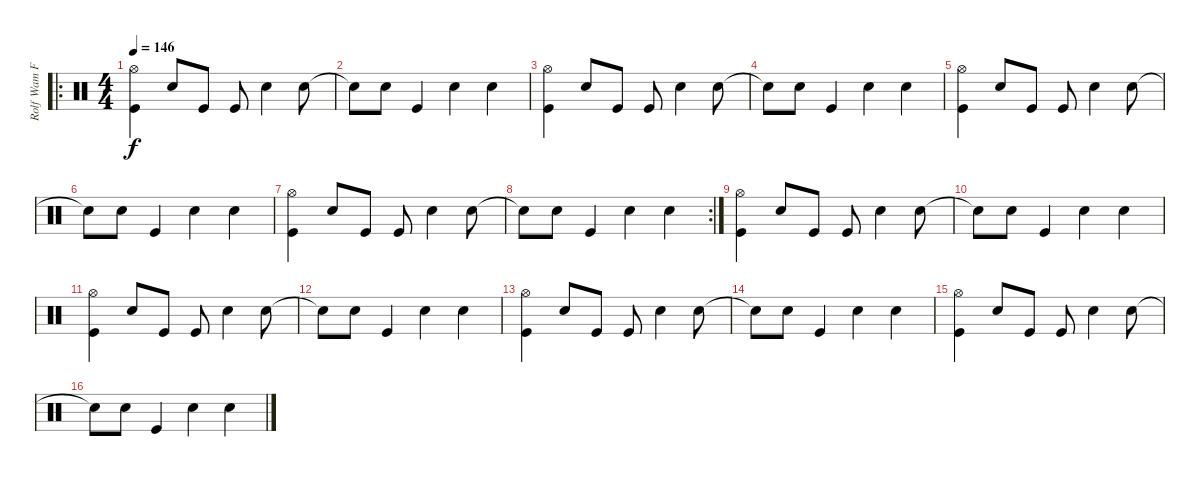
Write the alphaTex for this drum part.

\track ("Rolf Wam Fjell" "Rolf Wam F") {instrument percussion}
\staff {score}
\articulation defaults
\ro
\ts (4 4)
\tempo 146
\clef neutral
\ks c
("Kick (hit)" "Hi-Hat (open)").4{dy f} "Electric Snare (hit)".8 "Kick (hit)".8 "Kick (hit)".8 "Electric Snare (hit)".4 "Electric Snare (hit)".8 |
"Electric Snare (hit)"{t}.8 "Electric Snare (hit)".8 "Kick (hit)".4 "Electric Snare (hit)".4 "Electric Snare (hit)".4 |
("Kick (hit)" "Hi-Hat (open)").4 "Electric Snare (hit)".8 "Kick (hit)".8 "Kick (hit)".8 "Electric Snare (hit)".4 "Electric Snare (hit)".8 |
"Electric Snare (hit)"{t}.8 "Electric Snare (hit)".8 "Kick (hit)".4 "Electric Snare (hit)".4 "Electric Snare (hit)".4 |
("Kick (hit)" "Hi-Hat (open)").4 "Electric Snare (hit)".8 "Kick (hit)".8 "Kick (hit)".8 "Electric Snare (hit)".4 "Electric Snare (hit)".8 |
"Electric Snare (hit)"{t}.8 "Electric Snare (hit)".8 "Kick (hit)".4 "Electric Snare (hit)".4 "Electric Snare (hit)".4 |
("Kick (hit)" "Hi-Hat (open)").4 "Electric Snare (hit)".8 "Kick (hit)".8 "Kick (hit)".8 "Electric Snare (hit)".4 "Electric Snare (hit)".8 |
\rc 2 "Electric Snare (hit)"{t}.8 "Electric Snare (hit)".8 "Kick (hit)".4 "Electric Snare (hit)".4 "Electric Snare (hit)".4
|
("Kick (hit)" "Hi-Hat (open)").4 "Electric Snare (hit)".8 "Kick (hit)".8 "Kick (hit)".8 "Electric Snare (hit)".4 "Electric Snare (hit)".8 |
"Electric Snare (hit)"{t}.8 "Electric Snare (hit)".8 "Kick (hit)".4 "Electric Snare (hit)".4 "Electric Snare (hit)".4 |
("Kick (hit)" "Hi-Hat (open)").4 "Electric Snare (hit)".8 "Kick (hit)".8 "Kick (hit)".8 "Electric Snare (hit)".4 "Electric Snare (hit)".8 |
"Electric Snare (hit)"{t}.8 "Electric Snare (hit)".8 "Kick (hit)".4 "Electric Snare (hit)".4 "Electric Snare (hit)".4 |
("Kick (hit)" "Hi-Hat (open)").4 "Electric Snare (hit)".8 "Kick (hit)".8 "Kick (hit)".8 "Electric Snare (hit)".4 "Electric Snare (hit)".8 |
"Electric Snare (hit)"{t}.8 "Electric Snare (hit)".8 "Kick (hit)".4 "Electric Snare (hit)".4 "Electric Snare (hit)".4 |
("Kick (hit)" "Hi-Hat (open)").4 "Electric Snare (hit)".8 "Kick (hit)".8 "Kick (hit)".8 "Electric Snare (hit)".4 "Electric Snare (hit)".8 |
"Electric Snare (hit)"{t}.8 "Electric Snare (hit)".8 "Kick (hit)".4 "Electric Snare (hit)".4 "Electric Snare (hit)".4
